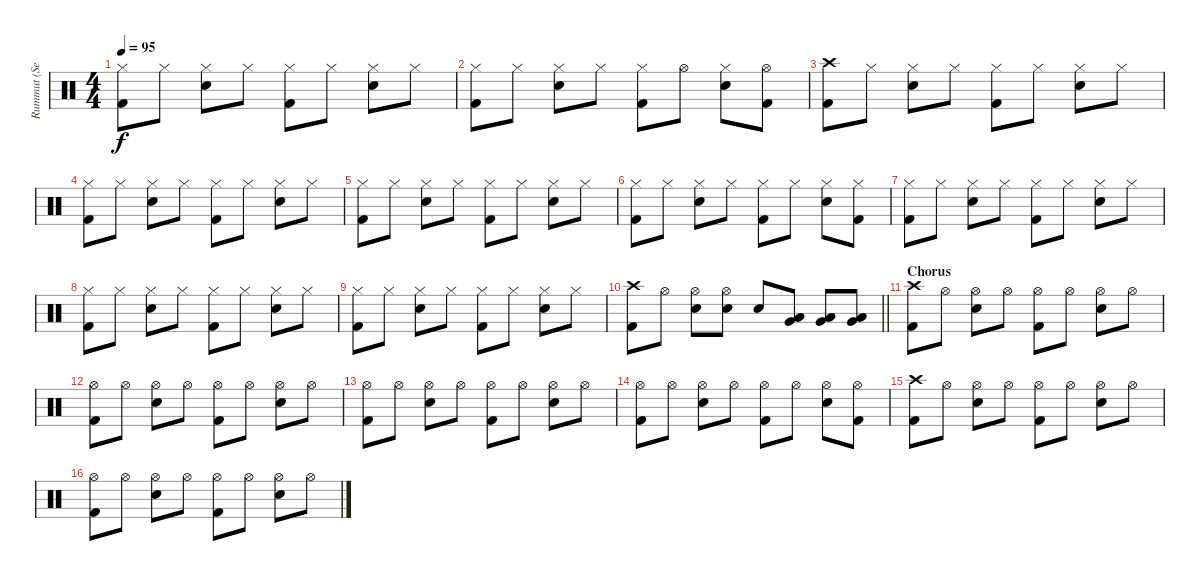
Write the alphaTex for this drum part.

\track ("Rummut (Seppo Pohjolainen)" "Rummut (Se") {instrument percussion}
\staff {score}
\articulation defaults
\ts (4 4)
\tempo 95
\clef neutral
\ks c
("Hi-Hat (closed)" "Kick (hit) 2").8{dy f} "Hi-Hat (closed)".8 ("Hi-Hat (closed)" "Snare (hit) 2").8 "Hi-Hat (closed)".8 ("Hi-Hat (closed)" "Kick (hit) 2").8 "Hi-Hat (closed)".8 ("Hi-Hat (closed)" "Snare (hit) 2").8 "Hi-Hat (closed)".8 |
("Hi-Hat (closed)" "Kick (hit) 2").8 "Hi-Hat (closed)".8 ("Hi-Hat (closed)" "Snare (hit) 2").8 "Hi-Hat (closed)".8 ("Hi-Hat (closed)" "Kick (hit) 2").8 "Hi-Hat (open)".8 ("Hi-Hat (closed)" "Snare (hit) 2").8 ("Hi-Hat (open)" "Kick (hit) 2").8 |
("Crash high (hit)" "Kick (hit) 2").8 "Hi-Hat (closed)".8 ("Hi-Hat (closed)" "Snare (hit) 2").8 "Hi-Hat (closed)".8 ("Hi-Hat (closed)" "Kick (hit) 2").8 "Hi-Hat (closed)".8 ("Hi-Hat (closed)" "Snare (hit) 2").8 "Hi-Hat (closed)".8 |
("Hi-Hat (closed)" "Kick (hit) 2").8 "Hi-Hat (closed)".8 ("Hi-Hat (closed)" "Snare (hit) 2").8 "Hi-Hat (closed)".8 ("Hi-Hat (closed)" "Kick (hit) 2").8 "Hi-Hat (closed)".8 ("Hi-Hat (closed)" "Snare (hit) 2").8 "Hi-Hat (closed)".8 |
("Hi-Hat (closed)" "Kick (hit) 2").8 "Hi-Hat (closed)".8 ("Hi-Hat (closed)" "Snare (hit) 2").8 "Hi-Hat (closed)".8 ("Hi-Hat (closed)" "Kick (hit) 2").8 "Hi-Hat (closed)".8 ("Hi-Hat (closed)" "Snare (hit) 2").8 "Hi-Hat (closed)".8 |
("Hi-Hat (closed)" "Kick (hit) 2").8 "Hi-Hat (closed)".8 ("Hi-Hat (closed)" "Snare (hit) 2").8 "Hi-Hat (closed)".8 ("Hi-Hat (closed)" "Kick (hit) 2").8 "Hi-Hat (closed)".8 ("Hi-Hat (closed)" "Snare (hit) 2").8 ("Hi-Hat (closed)" "Kick (hit) 2").8 |
("Hi-Hat (closed)" "Kick (hit) 2").8 "Hi-Hat (closed)".8 ("Hi-Hat (closed)" "Snare (hit) 2").8 "Hi-Hat (closed)".8 ("Hi-Hat (closed)" "Kick (hit) 2").8 "Hi-Hat (closed)".8 ("Hi-Hat (closed)" "Snare (hit) 2").8 "Hi-Hat (closed)".8 |
("Hi-Hat (closed)" "Kick (hit) 2").8 "Hi-Hat (closed)".8 ("Hi-Hat (closed)" "Snare (hit) 2").8 "Hi-Hat (closed)".8 ("Hi-Hat (closed)" "Kick (hit) 2").8 "Hi-Hat (closed)".8 ("Hi-Hat (closed)" "Snare (hit) 2").8 "Hi-Hat (closed)".8 |
("Hi-Hat (closed)" "Kick (hit) 2").8 "Hi-Hat (closed)".8 ("Hi-Hat (closed)" "Snare (hit) 2").8 "Hi-Hat (closed)".8 ("Hi-Hat (closed)" "Kick (hit) 2").8 "Hi-Hat (closed)".8 ("Hi-Hat (closed)" "Snare (hit) 2").8 "Hi-Hat (closed)".8 |
\barLineRight lightlight
("Crash high (hit)" "Kick (hit) 2").8 "Hi-Hat (open)".8 ("Hi-Hat (open)" "Snare (hit) 2").8 ("Hi-Hat (open)" "Snare (hit) 2").8 "Snare (hit) 2".8 ("Very Low Tom (hit)" "Low Floor Tom (hit)").8 ("Very Low Tom (hit)" "Low Floor Tom (hit)").8 ("Very Low Tom (hit)" "Low Floor Tom (hit)").8 |
\section ("" "Chorus")
("Crash high (hit)" "Kick (hit) 2").8 "Hi-Hat (open)".8 ("Hi-Hat (open)" "Snare (hit) 2").8 "Hi-Hat (open)".8 ("Hi-Hat (open)" "Kick (hit) 2").8 "Hi-Hat (open)".8 ("Hi-Hat (open)" "Snare (hit) 2").8 "Hi-Hat (open)".8 |
("Hi-Hat (open)" "Kick (hit) 2").8 "Hi-Hat (open)".8 ("Hi-Hat (open)" "Snare (hit) 2").8 "Hi-Hat (open)".8 ("Hi-Hat (open)" "Kick (hit) 2").8 "Hi-Hat (open)".8 ("Hi-Hat (open)" "Snare (hit) 2").8 "Hi-Hat (open)".8 |
("Hi-Hat (open)" "Kick (hit) 2").8 "Hi-Hat (open)".8 ("Hi-Hat (open)" "Snare (hit) 2").8 "Hi-Hat (open)".8 ("Hi-Hat (open)" "Kick (hit) 2").8 "Hi-Hat (open)".8 ("Hi-Hat (open)" "Snare (hit) 2").8 "Hi-Hat (open)".8 |
("Hi-Hat (open)" "Kick (hit) 2").8 "Hi-Hat (open)".8 ("Hi-Hat (open)" "Snare (hit) 2").8 "Hi-Hat (open)".8 ("Hi-Hat (open)" "Kick (hit) 2").8 "Hi-Hat (open)".8 ("Hi-Hat (open)" "Snare (hit) 2").8 ("Hi-Hat (open)" "Kick (hit) 2").8 |
("Crash high (hit)" "Kick (hit) 2").8 "Hi-Hat (open)".8 ("Hi-Hat (open)" "Snare (hit) 2").8 "Hi-Hat (open)".8 ("Hi-Hat (open)" "Kick (hit) 2").8 "Hi-Hat (open)".8 ("Hi-Hat (open)" "Snare (hit) 2").8 "Hi-Hat (open)".8 |
("Hi-Hat (open)" "Kick (hit) 2").8 "Hi-Hat (open)".8 ("Hi-Hat (open)" "Snare (hit) 2").8 "Hi-Hat (open)".8 ("Hi-Hat (open)" "Kick (hit) 2").8 "Hi-Hat (open)".8 ("Hi-Hat (open)" "Snare (hit) 2").8 "Hi-Hat (open)".8
